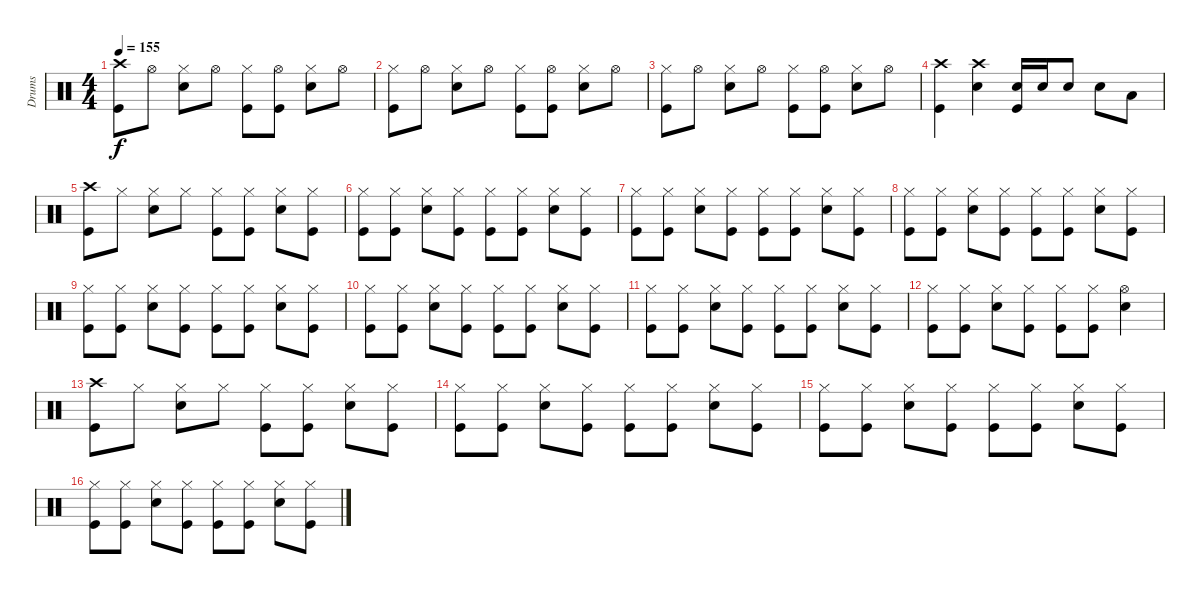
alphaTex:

\track ("Drums" "Drums") {instrument percussion}
\staff {score}
\articulation defaults
\ts (4 4)
\tempo 155
\clef neutral
\ks c
("Crash high (hit)" "Kick (hit)").8{dy f} "Hi-Hat (open)".8 ("Hi-Hat (closed)" "Snare (hit) 2").8 "Hi-Hat (open)".8 ("Hi-Hat (closed)" "Kick (hit)").8 ("Hi-Hat (open)" "Kick (hit)").8 ("Hi-Hat (closed)" "Snare (hit) 2").8 "Hi-Hat (open)".8 |
("Hi-Hat (closed)" "Kick (hit)").8 "Hi-Hat (open)".8 ("Hi-Hat (closed)" "Snare (hit) 2").8 "Hi-Hat (open)".8 ("Hi-Hat (closed)" "Kick (hit)").8 ("Hi-Hat (open)" "Kick (hit)").8 ("Hi-Hat (closed)" "Snare (hit) 2").8 "Hi-Hat (open)".8 |
("Hi-Hat (closed)" "Kick (hit)").8 "Hi-Hat (open)".8 ("Hi-Hat (closed)" "Snare (hit) 2").8 "Hi-Hat (open)".8 ("Hi-Hat (closed)" "Kick (hit)").8 ("Hi-Hat (open)" "Kick (hit)").8 ("Hi-Hat (closed)" "Snare (hit) 2").8 "Hi-Hat (open)".8 |
("Crash high (hit)" "Kick (hit)").4 ("Crash high (hit)" "Snare (hit) 2").4 ("Snare (hit) 2" "Kick (hit)").16 "Snare (hit) 2".16 "Snare (hit) 2".8 "Snare (hit) 2".8 "Low Floor Tom (hit)".8 |
("Crash high (hit)" "Kick (hit)").8 "Hi-Hat (closed)".8 ("Hi-Hat (closed)" "Snare (hit) 2").8 "Hi-Hat (closed)".8 ("Hi-Hat (closed)" "Kick (hit)").8 ("Hi-Hat (closed)" "Kick (hit)").8 ("Hi-Hat (closed)" "Snare (hit) 2").8 ("Hi-Hat (closed)" "Kick (hit)").8 |
("Hi-Hat (closed)" "Kick (hit)").8 ("Hi-Hat (closed)" "Kick (hit)").8 ("Hi-Hat (closed)" "Snare (hit) 2").8 ("Hi-Hat (closed)" "Kick (hit)").8 ("Hi-Hat (closed)" "Kick (hit)").8 ("Hi-Hat (closed)" "Kick (hit)").8 ("Hi-Hat (closed)" "Snare (hit) 2").8 ("Hi-Hat (closed)" "Kick (hit)").8 |
("Hi-Hat (closed)" "Kick (hit)").8 ("Hi-Hat (closed)" "Kick (hit)").8 ("Hi-Hat (closed)" "Snare (hit) 2").8 ("Hi-Hat (closed)" "Kick (hit)").8 ("Hi-Hat (closed)" "Kick (hit)").8 ("Hi-Hat (closed)" "Kick (hit)").8 ("Hi-Hat (closed)" "Snare (hit) 2").8 ("Hi-Hat (closed)" "Kick (hit)").8 |
("Hi-Hat (closed)" "Kick (hit)").8 ("Hi-Hat (closed)" "Kick (hit)").8 ("Hi-Hat (closed)" "Snare (hit) 2").8 ("Hi-Hat (closed)" "Kick (hit)").8 ("Hi-Hat (closed)" "Kick (hit)").8 ("Hi-Hat (closed)" "Kick (hit)").8 ("Hi-Hat (closed)" "Snare (hit) 2").8 ("Hi-Hat (closed)" "Kick (hit)").8 |
("Hi-Hat (closed)" "Kick (hit)").8 ("Hi-Hat (closed)" "Kick (hit)").8 ("Hi-Hat (closed)" "Snare (hit) 2").8 ("Hi-Hat (closed)" "Kick (hit)").8 ("Hi-Hat (closed)" "Kick (hit)").8 ("Hi-Hat (closed)" "Kick (hit)").8 ("Hi-Hat (closed)" "Snare (hit) 2").8 ("Hi-Hat (closed)" "Kick (hit)").8 |
("Hi-Hat (closed)" "Kick (hit)").8 ("Hi-Hat (closed)" "Kick (hit)").8 ("Hi-Hat (closed)" "Snare (hit) 2").8 ("Hi-Hat (closed)" "Kick (hit)").8 ("Hi-Hat (closed)" "Kick (hit)").8 ("Hi-Hat (closed)" "Kick (hit)").8 ("Hi-Hat (closed)" "Snare (hit) 2").8 ("Hi-Hat (closed)" "Kick (hit)").8 |
("Hi-Hat (closed)" "Kick (hit)").8 ("Hi-Hat (closed)" "Kick (hit)").8 ("Hi-Hat (closed)" "Snare (hit) 2").8 ("Hi-Hat (closed)" "Kick (hit)").8 ("Hi-Hat (closed)" "Kick (hit)").8 ("Hi-Hat (closed)" "Kick (hit)").8 ("Hi-Hat (closed)" "Snare (hit) 2").8 ("Hi-Hat (closed)" "Kick (hit)").8 |
("Hi-Hat (closed)" "Kick (hit)").8 ("Hi-Hat (closed)" "Kick (hit)").8 ("Hi-Hat (closed)" "Snare (hit) 2").8 ("Hi-Hat (closed)" "Kick (hit)").8 ("Hi-Hat (closed)" "Kick (hit)").8 ("Hi-Hat (closed)" "Kick (hit)").8 ("Hi-Hat (open)" "Snare (hit) 2").4 |
("Crash high (hit)" "Kick (hit)").8 "Hi-Hat (closed)".8 ("Hi-Hat (closed)" "Snare (hit) 2").8 "Hi-Hat (closed)".8 ("Hi-Hat (closed)" "Kick (hit)").8 ("Hi-Hat (closed)" "Kick (hit)").8 ("Hi-Hat (closed)" "Snare (hit) 2").8 ("Hi-Hat (closed)" "Kick (hit)").8 |
("Hi-Hat (closed)" "Kick (hit)").8 ("Hi-Hat (closed)" "Kick (hit)").8 ("Hi-Hat (closed)" "Snare (hit) 2").8 ("Hi-Hat (closed)" "Kick (hit)").8 ("Hi-Hat (closed)" "Kick (hit)").8 ("Hi-Hat (closed)" "Kick (hit)").8 ("Hi-Hat (closed)" "Snare (hit) 2").8 ("Hi-Hat (closed)" "Kick (hit)").8 |
("Hi-Hat (closed)" "Kick (hit)").8 ("Hi-Hat (closed)" "Kick (hit)").8 ("Hi-Hat (closed)" "Snare (hit) 2").8 ("Hi-Hat (closed)" "Kick (hit)").8 ("Hi-Hat (closed)" "Kick (hit)").8 ("Hi-Hat (closed)" "Kick (hit)").8 ("Hi-Hat (closed)" "Snare (hit) 2").8 ("Hi-Hat (closed)" "Kick (hit)").8 |
("Hi-Hat (closed)" "Kick (hit)").8 ("Hi-Hat (closed)" "Kick (hit)").8 ("Hi-Hat (closed)" "Snare (hit) 2").8 ("Hi-Hat (closed)" "Kick (hit)").8 ("Hi-Hat (closed)" "Kick (hit)").8 ("Hi-Hat (closed)" "Kick (hit)").8 ("Hi-Hat (closed)" "Snare (hit) 2").8 ("Hi-Hat (closed)" "Kick (hit)").8
